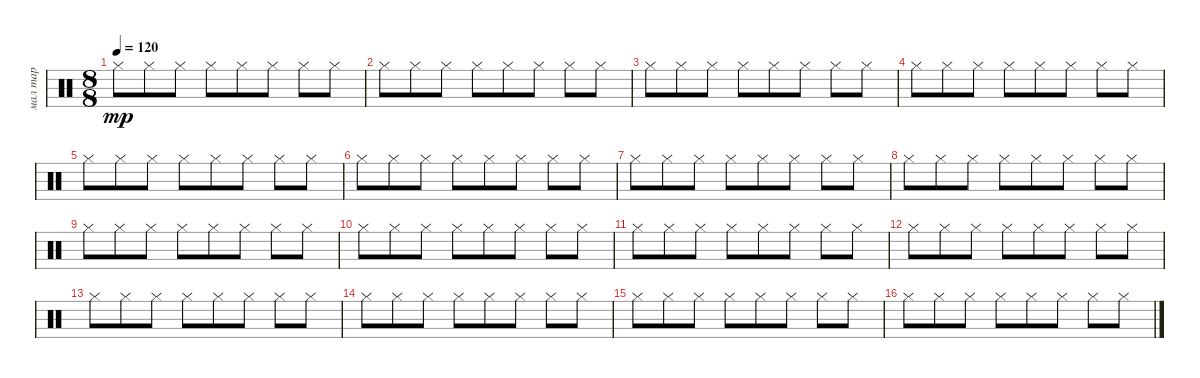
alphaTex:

\track ("мал тар" "мал тар") {instrument percussion}
\staff {score}
\articulation defaults
\ts (8 8)
\tempo 120
\clef neutral
\ks c "Hi-Hat (closed)".8{dy mp} "Hi-Hat (closed)".8 "Hi-Hat (closed)".8 "Hi-Hat (closed)".8 "Hi-Hat (closed)".8 "Hi-Hat (closed)".8 "Hi-Hat (closed)".8 "Hi-Hat (closed)".8
|
"Hi-Hat (closed)".8 "Hi-Hat (closed)".8 "Hi-Hat (closed)".8 "Hi-Hat (closed)".8 "Hi-Hat (closed)".8 "Hi-Hat (closed)".8 "Hi-Hat (closed)".8 "Hi-Hat (closed)".8 |
"Hi-Hat (closed)".8 "Hi-Hat (closed)".8 "Hi-Hat (closed)".8 "Hi-Hat (closed)".8 "Hi-Hat (closed)".8 "Hi-Hat (closed)".8 "Hi-Hat (closed)".8 "Hi-Hat (closed)".8 |
"Hi-Hat (closed)".8 "Hi-Hat (closed)".8 "Hi-Hat (closed)".8 "Hi-Hat (closed)".8 "Hi-Hat (closed)".8 "Hi-Hat (closed)".8 "Hi-Hat (closed)".8 "Hi-Hat (closed)".8 |
"Hi-Hat (closed)".8 "Hi-Hat (closed)".8 "Hi-Hat (closed)".8 "Hi-Hat (closed)".8 "Hi-Hat (closed)".8 "Hi-Hat (closed)".8 "Hi-Hat (closed)".8 "Hi-Hat (closed)".8 |
"Hi-Hat (closed)".8 "Hi-Hat (closed)".8 "Hi-Hat (closed)".8 "Hi-Hat (closed)".8 "Hi-Hat (closed)".8 "Hi-Hat (closed)".8 "Hi-Hat (closed)".8 "Hi-Hat (closed)".8 |
"Hi-Hat (closed)".8 "Hi-Hat (closed)".8 "Hi-Hat (closed)".8 "Hi-Hat (closed)".8 "Hi-Hat (closed)".8 "Hi-Hat (closed)".8 "Hi-Hat (closed)".8 "Hi-Hat (closed)".8 |
"Hi-Hat (closed)".8 "Hi-Hat (closed)".8 "Hi-Hat (closed)".8 "Hi-Hat (closed)".8 "Hi-Hat (closed)".8 "Hi-Hat (closed)".8 "Hi-Hat (closed)".8 "Hi-Hat (closed)".8 |
"Hi-Hat (closed)".8 "Hi-Hat (closed)".8 "Hi-Hat (closed)".8 "Hi-Hat (closed)".8 "Hi-Hat (closed)".8 "Hi-Hat (closed)".8 "Hi-Hat (closed)".8 "Hi-Hat (closed)".8{volume 16} |
"Hi-Hat (closed)".8 "Hi-Hat (closed)".8 "Hi-Hat (closed)".8 "Hi-Hat (closed)".8{volume 15} "Hi-Hat (closed)".8 "Hi-Hat (closed)".8 "Hi-Hat (closed)".8{volume 15} "Hi-Hat (closed)".8 |
"Hi-Hat (closed)".8{volume 15} "Hi-Hat (closed)".8 "Hi-Hat (closed)".8{volume 15} "Hi-Hat (closed)".8 "Hi-Hat (closed)".8{volume 15} "Hi-Hat (closed)".8 "Hi-Hat (closed)".8{volume 14} "Hi-Hat (closed)".8{volume 14} |
"Hi-Hat (closed)".8 "Hi-Hat (closed)".8{volume 14} "Hi-Hat (closed)".8{volume 14} "Hi-Hat (closed)".8 "Hi-Hat (closed)".8 "Hi-Hat (closed)".8 "Hi-Hat (closed)".8{volume 14} "Hi-Hat (closed)".8 |
"Hi-Hat (closed)".8 "Hi-Hat (closed)".8{volume 14} "Hi-Hat (closed)".8 "Hi-Hat (closed)".8 "Hi-Hat (closed)".8{volume 13} "Hi-Hat (closed)".8 "Hi-Hat (closed)".8 "Hi-Hat (closed)".8{volume 13} |
"Hi-Hat (closed)".8 "Hi-Hat (closed)".8 "Hi-Hat (closed)".8 "Hi-Hat (closed)".8{volume 13} "Hi-Hat (closed)".8 "Hi-Hat (closed)".8 "Hi-Hat (closed)".8{volume 12} "Hi-Hat (closed)".8 |
"Hi-Hat (closed)".8 "Hi-Hat (closed)".8{volume 12} "Hi-Hat (closed)".8{volume 12} "Hi-Hat (closed)".8{volume 12} "Hi-Hat (closed)".8{volume 12} "Hi-Hat (closed)".8{volume 12} "Hi-Hat (closed)".8 "Hi-Hat (closed)".8{volume 11} |
"Hi-Hat (closed)".8{volume 11} "Hi-Hat (closed)".8{volume 11} "Hi-Hat (closed)".8 "Hi-Hat (closed)".8{volume 11} "Hi-Hat (closed)".8{volume 10} "Hi-Hat (closed)".8{volume 10} "Hi-Hat (closed)".8{volume 10} "Hi-Hat (closed)".8{volume 10}
